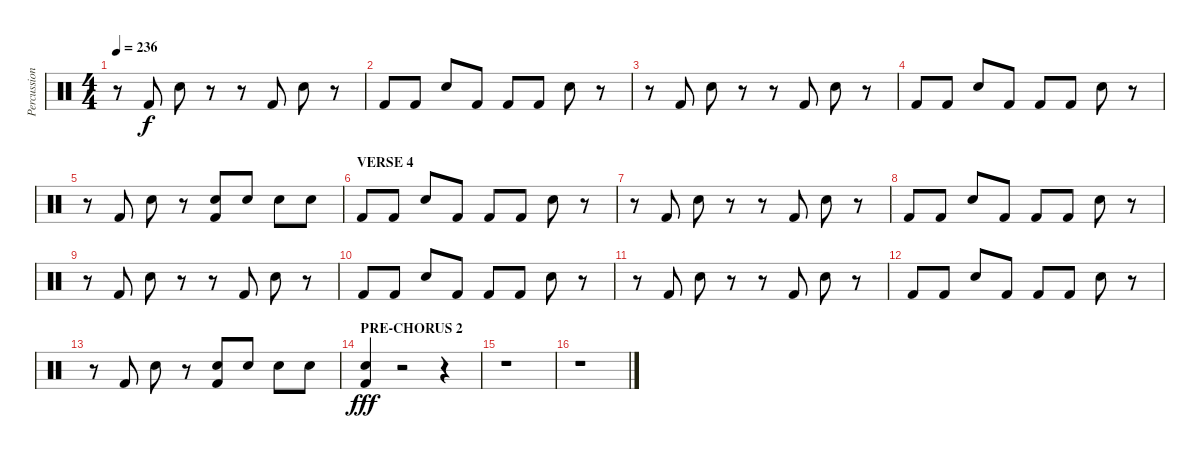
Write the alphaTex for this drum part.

\track ("Percussions" "Percussion") {instrument percussion}
\staff {score}
\articulation defaults
\ts (4 4)
\tempo 236
\clef neutral
\ks c
r.8{dy f} "Kick (hit) 2".8 "Snare (hit) 2".8 r.8 r.8 "Kick (hit) 2".8 "Snare (hit) 2".8 r.8 |
"Kick (hit) 2".8 "Kick (hit) 2".8 "Snare (hit) 2".8 "Kick (hit) 2".8 "Kick (hit) 2".8 "Kick (hit) 2".8 "Snare (hit) 2".8 r.8 |
r.8 "Kick (hit) 2".8 "Snare (hit) 2".8 r.8 r.8 "Kick (hit) 2".8 "Snare (hit) 2".8 r.8 |
"Kick (hit) 2".8 "Kick (hit) 2".8 "Snare (hit) 2".8 "Kick (hit) 2".8 "Kick (hit) 2".8 "Kick (hit) 2".8 "Snare (hit) 2".8 r.8 |
r.8 "Kick (hit) 2".8 "Snare (hit) 2".8 r.8 ("Snare (hit) 2" "Kick (hit) 2").8 "Snare (hit) 2".8 "Snare (hit) 2".8 "Snare (hit) 2".8 |
\section ("" "VERSE 4")
"Kick (hit) 2".8 "Kick (hit) 2".8 "Snare (hit) 2".8 "Kick (hit) 2".8 "Kick (hit) 2".8 "Kick (hit) 2".8 "Snare (hit) 2".8 r.8 |
r.8 "Kick (hit) 2".8 "Snare (hit) 2".8 r.8 r.8 "Kick (hit) 2".8 "Snare (hit) 2".8 r.8 |
"Kick (hit) 2".8 "Kick (hit) 2".8 "Snare (hit) 2".8 "Kick (hit) 2".8 "Kick (hit) 2".8 "Kick (hit) 2".8 "Snare (hit) 2".8 r.8 |
r.8 "Kick (hit) 2".8 "Snare (hit) 2".8 r.8 r.8 "Kick (hit) 2".8 "Snare (hit) 2".8 r.8 |
"Kick (hit) 2".8 "Kick (hit) 2".8 "Snare (hit) 2".8 "Kick (hit) 2".8 "Kick (hit) 2".8 "Kick (hit) 2".8 "Snare (hit) 2".8 r.8 |
r.8 "Kick (hit) 2".8 "Snare (hit) 2".8 r.8 r.8 "Kick (hit) 2".8 "Snare (hit) 2".8 r.8 |
"Kick (hit) 2".8 "Kick (hit) 2".8 "Snare (hit) 2".8 "Kick (hit) 2".8 "Kick (hit) 2".8 "Kick (hit) 2".8 "Snare (hit) 2".8 r.8 |
r.8 "Kick (hit) 2".8 "Snare (hit) 2".8 r.8 ("Snare (hit) 2" "Kick (hit) 2").8 "Snare (hit) 2".8 "Snare (hit) 2".8 "Snare (hit) 2".8 |
\section ("" "PRE-CHORUS 2")
("Snare (hit) 2" "Kick (hit) 2").4{dy fff} r.2 r.4 |
r.1 |
r.1
